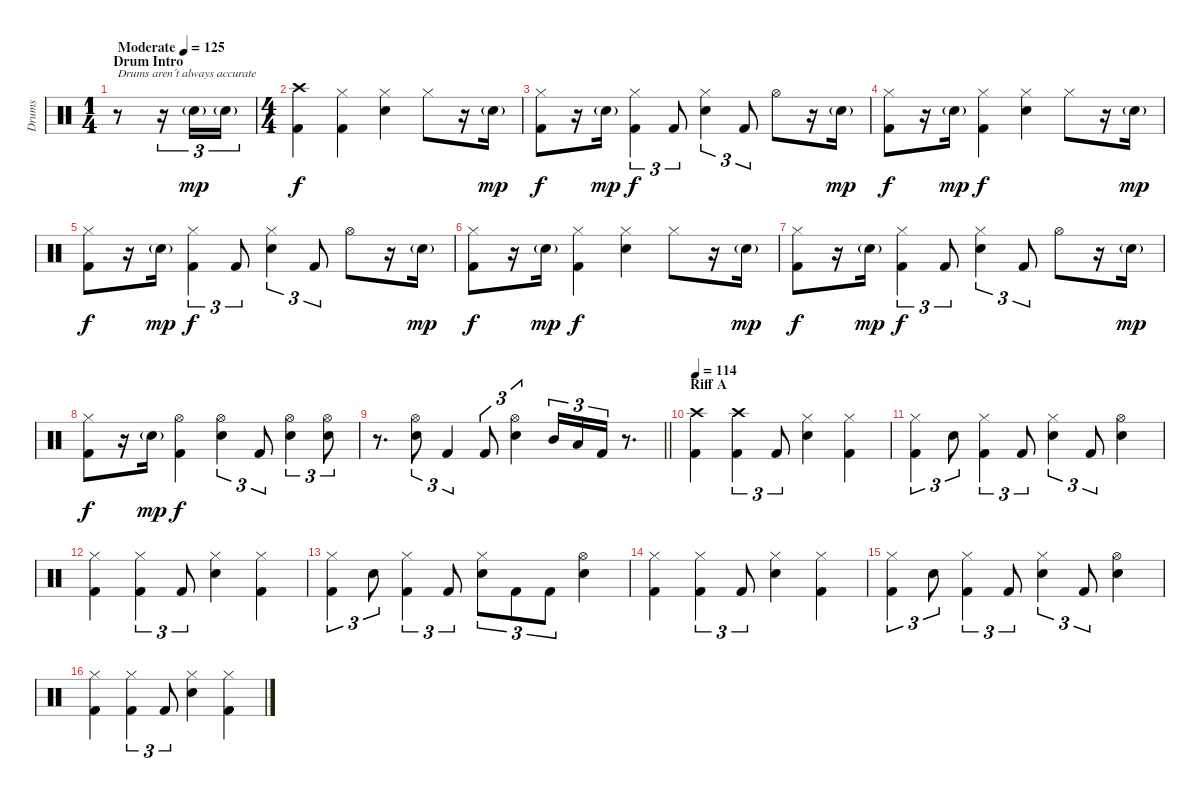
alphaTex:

\track ("Drums" "Drums") {instrument percussion}
\staff {score}
\articulation defaults
\ts (1 4)
\section ("" "Drum Intro")
\tempo (125 "Moderate")
\clef neutral
\ks c
r.8{txt "Drums aren´t always accurate" dy mp} r.16{tu (3 2)} "Electric Snare (hit)"{g}.16{tu (3 2)} "Electric Snare (hit)"{g}.16{tu (3 2)} |
\ts (4 4)
("Crash high (hit)" "Kick (hit) 2").4{dy f} ("Hi-Hat (closed)" "Kick (hit) 2").4 ("Hi-Hat (closed)" "Electric Snare (hit)").4 "Hi-Hat (closed)".8 r.16 "Electric Snare (hit)"{g}.16{dy mp} |
("Hi-Hat (closed)" "Kick (hit) 2").8{dy f} r.16 "Electric Snare (hit)"{g}.16{dy mp} ("Hi-Hat (closed)" "Kick (hit) 2").4{tu (3 2) dy f} "Kick (hit) 2".8{tu (3 2)} ("Hi-Hat (closed)" "Electric Snare (hit)").4{tu (3 2)} "Kick (hit) 2".8{tu (3 2)} "Hi-Hat (open)".8 r.16 "Electric Snare (hit)"{g}.16{dy mp} |
("Hi-Hat (closed)" "Kick (hit) 2").8{dy f} r.16 "Electric Snare (hit)"{g}.16{dy mp} ("Hi-Hat (closed)" "Kick (hit) 2").4{dy f} ("Hi-Hat (closed)" "Electric Snare (hit)").4 "Hi-Hat (closed)".8 r.16 "Electric Snare (hit)"{g}.16{dy mp} |
("Hi-Hat (closed)" "Kick (hit) 2").8{dy f} r.16 "Electric Snare (hit)"{g}.16{dy mp} ("Hi-Hat (closed)" "Kick (hit) 2").4{tu (3 2) dy f} "Kick (hit) 2".8{tu (3 2)} ("Hi-Hat (closed)" "Electric Snare (hit)").4{tu (3 2)} "Kick (hit) 2".8{tu (3 2)} "Hi-Hat (open)".8 r.16 "Electric Snare (hit)"{g}.16{dy mp} |
("Hi-Hat (closed)" "Kick (hit) 2").8{dy f} r.16 "Electric Snare (hit)"{g}.16{dy mp} ("Hi-Hat (closed)" "Kick (hit) 2").4{dy f} ("Hi-Hat (closed)" "Electric Snare (hit)").4 "Hi-Hat (closed)".8 r.16 "Electric Snare (hit)"{g}.16{dy mp} |
("Hi-Hat (closed)" "Kick (hit) 2").8{dy f} r.16 "Electric Snare (hit)"{g}.16{dy mp} ("Hi-Hat (closed)" "Kick (hit) 2").4{tu (3 2) dy f} "Kick (hit) 2".8{tu (3 2)} ("Hi-Hat (closed)" "Electric Snare (hit)").4{tu (3 2)} "Kick (hit) 2".8{tu (3 2)} "Hi-Hat (open)".8 r.16 "Electric Snare (hit)"{g}.16{dy mp} |
("Hi-Hat (closed)" "Kick (hit) 2").8{dy f} r.16 "Electric Snare (hit)"{g}.16{dy mp} ("Hi-Hat (open)" "Kick (hit) 2").4{dy f} ("Hi-Hat (open)" "Electric Snare (hit)").4{tu (3 2)} "Kick (hit) 2".8{tu (3 2)} ("Hi-Hat (open)" "Electric Snare (hit)").4{tu (3 2)} ("Hi-Hat (open)" "Electric Snare (hit)").8{tu (3 2)} |
\barLineRight lightlight
r.8{d} ("Hi-Hat (open)" "Electric Snare (hit)").8{tu (3 2)} "Kick (hit) 2".4{tu (3 2)} "Kick (hit) 2".8{tu (3 2)} ("Hi-Hat (open)" "Electric Snare (hit)").4{tu (3 2)} "Mid Tom (hit)".16{tu (3 2)} "Low Tom (hit)".16{tu (3 2)} "Kick (hit) 2".16{tu (3 2)} r.8{d} |
\section ("" "Riff A")
\tempo 114
("Crash high (hit)" "Kick (hit) 2").4 ("Crash high (hit)" "Kick (hit) 2").4{tu (3 2)} "Kick (hit) 2".8{tu (3 2)} ("Hi-Hat (closed)" "Electric Snare (hit)").4 ("Hi-Hat (closed)" "Kick (hit) 2").4 |
("Hi-Hat (closed)" "Kick (hit) 2").4{tu (3 2)} "Electric Snare (hit)".8{tu (3 2)} ("Hi-Hat (closed)" "Kick (hit) 2").4{tu (3 2)} "Kick (hit) 2".8{tu (3 2)} ("Hi-Hat (closed)" "Electric Snare (hit)").4{tu (3 2)} "Kick (hit) 2".8{tu (3 2)} ("Hi-Hat (open)" "Electric Snare (hit)").4 |
("Hi-Hat (closed)" "Kick (hit) 2").4 ("Hi-Hat (closed)" "Kick (hit) 2").4{tu (3 2)} "Kick (hit) 2".8{tu (3 2)} ("Hi-Hat (closed)" "Electric Snare (hit)").4 ("Hi-Hat (closed)" "Kick (hit) 2").4 |
("Hi-Hat (closed)" "Kick (hit) 2").4{tu (3 2)} "Electric Snare (hit)".8{tu (3 2)} ("Hi-Hat (closed)" "Kick (hit) 2").4{tu (3 2)} "Kick (hit) 2".8{tu (3 2)} ("Hi-Hat (closed)" "Electric Snare (hit)").8{tu (3 2)} "Kick (hit) 2".8{tu (3 2)} "Kick (hit) 2".8{tu (3 2)} ("Hi-Hat (open)" "Electric Snare (hit)").4 |
("Hi-Hat (closed)" "Kick (hit) 2").4 ("Hi-Hat (closed)" "Kick (hit) 2").4{tu (3 2)} "Kick (hit) 2".8{tu (3 2)} ("Hi-Hat (closed)" "Electric Snare (hit)").4 ("Hi-Hat (closed)" "Kick (hit) 2").4 |
("Hi-Hat (closed)" "Kick (hit) 2").4{tu (3 2)} "Electric Snare (hit)".8{tu (3 2)} ("Hi-Hat (closed)" "Kick (hit) 2").4{tu (3 2)} "Kick (hit) 2".8{tu (3 2)} ("Hi-Hat (closed)" "Electric Snare (hit)").4{tu (3 2)} "Kick (hit) 2".8{tu (3 2)} ("Hi-Hat (open)" "Electric Snare (hit)").4 |
("Hi-Hat (closed)" "Kick (hit) 2").4 ("Hi-Hat (closed)" "Kick (hit) 2").4{tu (3 2)} "Kick (hit) 2".8{tu (3 2)} ("Hi-Hat (closed)" "Electric Snare (hit)").4 ("Hi-Hat (closed)" "Kick (hit) 2").4
